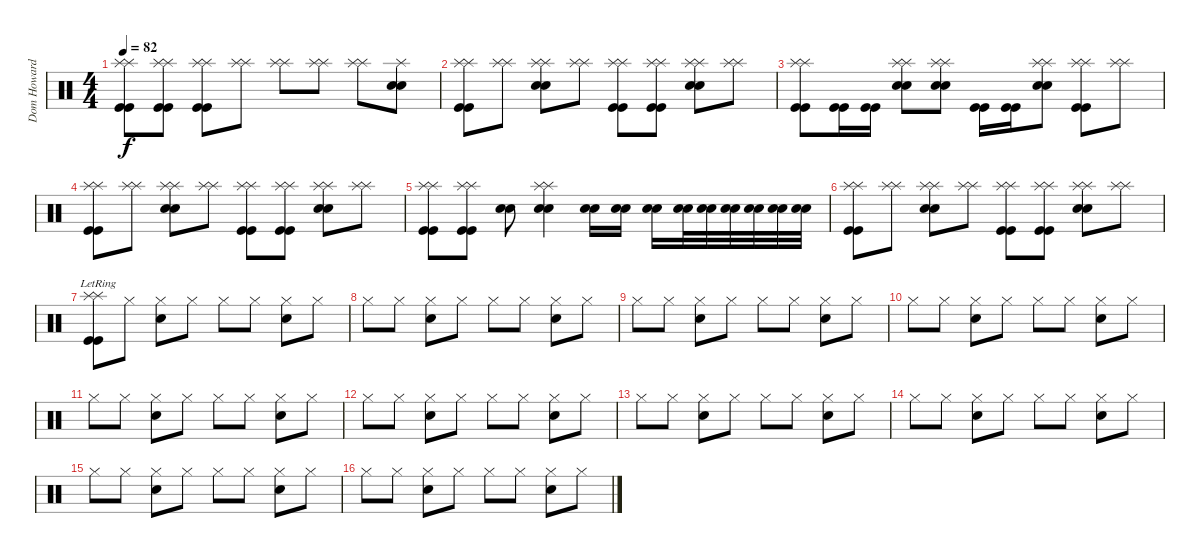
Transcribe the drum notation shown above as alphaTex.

\track ("Dom Howard" "Dom Howard") {instrument percussion}
\staff {score}
\articulation defaults
\ts (4 4)
\tempo 82
\clef neutral
\ks c
("Splash (hit)" "Splash (hit)" "Kick (hit)" "Kick (hit)").8{dy f} ("Splash (hit)" "Splash (hit)" "Kick (hit)" "Kick (hit)").8 ("Splash (hit)" "Splash (hit)" "Kick (hit)" "Kick (hit)").8 ("Splash (hit)" "Splash (hit)").8 ("Splash (hit)" "Splash (hit)").8 ("Splash (hit)" "Splash (hit)").8 ("Splash (hit)" "Splash (hit)").8 ("Splash (hit)" "Electric Snare (hit)" "Electric Snare (hit)").8 |
("Splash (hit)" "Splash (hit)" "Kick (hit)" "Kick (hit)").8 ("Splash (hit)" "Splash (hit)").8 ("Splash (hit)" "Splash (hit)" "Electric Snare (hit)" "Electric Snare (hit)").8 ("Splash (hit)" "Splash (hit)").8 ("Splash (hit)" "Splash (hit)" "Kick (hit)" "Kick (hit)").8 ("Splash (hit)" "Splash (hit)" "Kick (hit)" "Kick (hit)").8 ("Splash (hit)" "Splash (hit)" "Electric Snare (hit)" "Electric Snare (hit)").8 ("Splash (hit)" "Splash (hit)").8 |
("Splash (hit)" "Splash (hit)" "Kick (hit)" "Kick (hit)").8 ("Kick (hit)" "Kick (hit)").16 ("Kick (hit)" "Kick (hit)").16 ("Splash (hit)" "Splash (hit)" "Electric Snare (hit)" "Electric Snare (hit)").8 ("Splash (hit)" "Splash (hit)" "Electric Snare (hit)" "Electric Snare (hit)").8 ("Kick (hit)" "Kick (hit)").16 ("Kick (hit)" "Kick (hit)").16 ("Splash (hit)" "Splash (hit)" "Electric Snare (hit)" "Electric Snare (hit)").8 ("Splash (hit)" "Splash (hit)" "Kick (hit)" "Kick (hit)").8 ("Splash (hit)" "Splash (hit)").8 |
("Splash (hit)" "Splash (hit)" "Kick (hit)" "Kick (hit)").8 ("Splash (hit)" "Splash (hit)").8 ("Splash (hit)" "Splash (hit)" "Electric Snare (hit)" "Electric Snare (hit)").8 ("Splash (hit)" "Splash (hit)").8 ("Splash (hit)" "Splash (hit)" "Kick (hit)" "Kick (hit)").8 ("Splash (hit)" "Splash (hit)" "Kick (hit)" "Kick (hit)").8 ("Splash (hit)" "Splash (hit)" "Electric Snare (hit)" "Electric Snare (hit)").8 ("Splash (hit)" "Splash (hit)").8 |
("Splash (hit)" "Splash (hit)" "Kick (hit)" "Kick (hit)").8 ("Splash (hit)" "Splash (hit)" "Kick (hit)" "Kick (hit)").8 ("Electric Snare (hit)" "Electric Snare (hit)").8 ("Splash (hit)" "Splash (hit)" "Electric Snare (hit)" "Electric Snare (hit)").4 ("Electric Snare (hit)" "Electric Snare (hit)").16 ("Electric Snare (hit)" "Electric Snare (hit)").16 ("Electric Snare (hit)" "Electric Snare (hit)").16 ("Electric Snare (hit)" "Electric Snare (hit)").32 ("Electric Snare (hit)" "Electric Snare (hit)").32 ("Electric Snare (hit)" "Electric Snare (hit)").32 ("Electric Snare (hit)" "Electric Snare (hit)").32 ("Electric Snare (hit)" "Electric Snare (hit)").32 ("Electric Snare (hit)" "Electric Snare (hit)").32 |
("Splash (hit)" "Splash (hit)" "Kick (hit)" "Kick (hit)").8 ("Splash (hit)" "Splash (hit)").8 ("Splash (hit)" "Splash (hit)" "Electric Snare (hit)" "Electric Snare (hit)").8 ("Splash (hit)" "Splash (hit)").8 ("Splash (hit)" "Splash (hit)" "Kick (hit)" "Kick (hit)").8 ("Splash (hit)" "Splash (hit)" "Kick (hit)" "Kick (hit)").8 ("Splash (hit)" "Splash (hit)" "Electric Snare (hit)" "Electric Snare (hit)").8 ("Splash (hit)" "Splash (hit)").8 |
("Splash (hit)"{lr} "Splash (hit)"{lr} "Kick (hit)" "Kick (hit)").8 "Hi-Hat (closed)".8{volume 12} ("Hi-Hat (closed)" "Electric Snare (hit)").8 "Hi-Hat (closed)".8 "Hi-Hat (closed)".8 "Hi-Hat (closed)".8 ("Hi-Hat (closed)" "Electric Snare (hit)").8 "Hi-Hat (closed)".8 |
"Hi-Hat (closed)".8 "Hi-Hat (closed)".8 ("Hi-Hat (closed)" "Electric Snare (hit)").8 "Hi-Hat (closed)".8 "Hi-Hat (closed)".8 "Hi-Hat (closed)".8 ("Hi-Hat (closed)" "Electric Snare (hit)").8 "Hi-Hat (closed)".8 |
"Hi-Hat (closed)".8 "Hi-Hat (closed)".8 ("Hi-Hat (closed)" "Electric Snare (hit)").8 "Hi-Hat (closed)".8 "Hi-Hat (closed)".8 "Hi-Hat (closed)".8 ("Hi-Hat (closed)" "Electric Snare (hit)").8 "Hi-Hat (closed)".8 |
"Hi-Hat (closed)".8 "Hi-Hat (closed)".8 ("Hi-Hat (closed)" "Electric Snare (hit)").8 "Hi-Hat (closed)".8 "Hi-Hat (closed)".8 "Hi-Hat (closed)".8 ("Hi-Hat (closed)" "Electric Snare (hit)").8 "Hi-Hat (closed)".8 |
"Hi-Hat (closed)".8 "Hi-Hat (closed)".8 ("Hi-Hat (closed)" "Electric Snare (hit)").8 "Hi-Hat (closed)".8 "Hi-Hat (closed)".8 "Hi-Hat (closed)".8 ("Hi-Hat (closed)" "Electric Snare (hit)").8 "Hi-Hat (closed)".8 |
"Hi-Hat (closed)".8 "Hi-Hat (closed)".8 ("Hi-Hat (closed)" "Electric Snare (hit)").8 "Hi-Hat (closed)".8 "Hi-Hat (closed)".8 "Hi-Hat (closed)".8 ("Hi-Hat (closed)" "Electric Snare (hit)").8 "Hi-Hat (closed)".8 |
"Hi-Hat (closed)".8 "Hi-Hat (closed)".8 ("Hi-Hat (closed)" "Electric Snare (hit)").8 "Hi-Hat (closed)".8 "Hi-Hat (closed)".8 "Hi-Hat (closed)".8 ("Hi-Hat (closed)" "Electric Snare (hit)").8 "Hi-Hat (closed)".8 |
"Hi-Hat (closed)".8 "Hi-Hat (closed)".8 ("Hi-Hat (closed)" "Electric Snare (hit)").8 "Hi-Hat (closed)".8 "Hi-Hat (closed)".8 "Hi-Hat (closed)".8 ("Hi-Hat (closed)" "Electric Snare (hit)").8 "Hi-Hat (closed)".8 |
"Hi-Hat (closed)".8 "Hi-Hat (closed)".8 ("Hi-Hat (closed)" "Electric Snare (hit)").8 "Hi-Hat (closed)".8 "Hi-Hat (closed)".8 "Hi-Hat (closed)".8 ("Hi-Hat (closed)" "Electric Snare (hit)").8 "Hi-Hat (closed)".8 |
"Hi-Hat (closed)".8 "Hi-Hat (closed)".8 ("Hi-Hat (closed)" "Electric Snare (hit)").8 "Hi-Hat (closed)".8 "Hi-Hat (closed)".8 "Hi-Hat (closed)".8 ("Hi-Hat (closed)" "Electric Snare (hit)").8 "Hi-Hat (closed)".8
